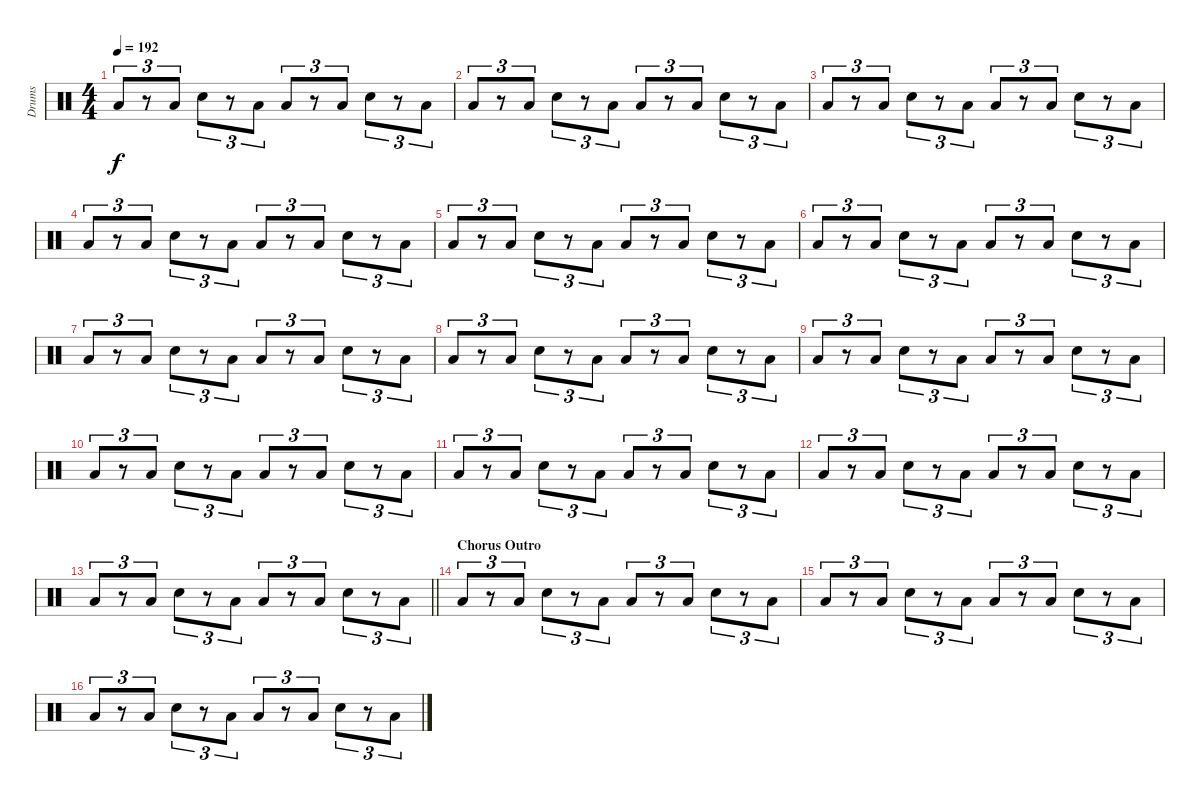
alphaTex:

\track ("Drums" "Drums") {instrument percussion}
\staff {score}
\articulation defaults
\ts (4 4)
\tempo 192
\clef neutral
\ks c "Low Floor Tom (hit)".8{tu (3 2) dy f}
r.8{tu (3 2)} "Low Tom (hit)".8{tu (3 2)} "Snare (hit) 2".8{tu (3 2)} r.8{tu (3 2)} "Low Tom (hit)".8{tu (3 2)} "Low Floor Tom (hit)".8{tu (3 2)} r.8{tu (3 2)} "Low Tom (hit)".8{tu (3 2)} "Snare (hit) 2".8{tu (3 2)} r.8{tu (3 2)} "Low Tom (hit)".8{tu (3 2)} |
"Low Floor Tom (hit)".8{tu (3 2)} r.8{tu (3 2)} "Low Tom (hit)".8{tu (3 2)} "Snare (hit) 2".8{tu (3 2)} r.8{tu (3 2)} "Low Tom (hit)".8{tu (3 2)} "Low Floor Tom (hit)".8{tu (3 2)} r.8{tu (3 2)} "Low Tom (hit)".8{tu (3 2)} "Snare (hit) 2".8{tu (3 2)} r.8{tu (3 2)} "Low Tom (hit)".8{tu (3 2)} |
"Low Floor Tom (hit)".8{tu (3 2)} r.8{tu (3 2)} "Low Tom (hit)".8{tu (3 2)} "Snare (hit) 2".8{tu (3 2)} r.8{tu (3 2)} "Low Tom (hit)".8{tu (3 2)} "Low Floor Tom (hit)".8{tu (3 2)} r.8{tu (3 2)} "Low Tom (hit)".8{tu (3 2)} "Snare (hit) 2".8{tu (3 2)} r.8{tu (3 2)} "Low Tom (hit)".8{tu (3 2)} |
"Low Floor Tom (hit)".8{tu (3 2)} r.8{tu (3 2)} "Low Tom (hit)".8{tu (3 2)} "Snare (hit) 2".8{tu (3 2)} r.8{tu (3 2)} "Low Tom (hit)".8{tu (3 2)} "Low Floor Tom (hit)".8{tu (3 2)} r.8{tu (3 2)} "Low Tom (hit)".8{tu (3 2)} "Snare (hit) 2".8{tu (3 2)} r.8{tu (3 2)} "Low Tom (hit)".8{tu (3 2)} |
"Low Floor Tom (hit)".8{tu (3 2)} r.8{tu (3 2)} "Low Tom (hit)".8{tu (3 2)} "Snare (hit) 2".8{tu (3 2)} r.8{tu (3 2)} "Low Tom (hit)".8{tu (3 2)} "Low Floor Tom (hit)".8{tu (3 2)} r.8{tu (3 2)} "Low Tom (hit)".8{tu (3 2)} "Snare (hit) 2".8{tu (3 2)} r.8{tu (3 2)} "Low Tom (hit)".8{tu (3 2)} |
"Low Floor Tom (hit)".8{tu (3 2)} r.8{tu (3 2)} "Low Tom (hit)".8{tu (3 2)} "Snare (hit) 2".8{tu (3 2)} r.8{tu (3 2)} "Low Tom (hit)".8{tu (3 2)} "Low Floor Tom (hit)".8{tu (3 2)} r.8{tu (3 2)} "Low Tom (hit)".8{tu (3 2)} "Snare (hit) 2".8{tu (3 2)} r.8{tu (3 2)} "Low Tom (hit)".8{tu (3 2)} |
"Low Floor Tom (hit)".8{tu (3 2)} r.8{tu (3 2)} "Low Tom (hit)".8{tu (3 2)} "Snare (hit) 2".8{tu (3 2)} r.8{tu (3 2)} "Low Tom (hit)".8{tu (3 2)} "Low Floor Tom (hit)".8{tu (3 2)} r.8{tu (3 2)} "Low Tom (hit)".8{tu (3 2)} "Snare (hit) 2".8{tu (3 2)} r.8{tu (3 2)} "Low Tom (hit)".8{tu (3 2)} |
"Low Floor Tom (hit)".8{tu (3 2)} r.8{tu (3 2)} "Low Tom (hit)".8{tu (3 2)} "Snare (hit) 2".8{tu (3 2)} r.8{tu (3 2)} "Low Tom (hit)".8{tu (3 2)} "Low Floor Tom (hit)".8{tu (3 2)} r.8{tu (3 2)} "Low Tom (hit)".8{tu (3 2)} "Snare (hit) 2".8{tu (3 2)} r.8{tu (3 2)} "Low Tom (hit)".8{tu (3 2)} |
"Low Floor Tom (hit)".8{tu (3 2)} r.8{tu (3 2)} "Low Tom (hit)".8{tu (3 2)} "Snare (hit) 2".8{tu (3 2)} r.8{tu (3 2)} "Low Tom (hit)".8{tu (3 2)} "Low Floor Tom (hit)".8{tu (3 2)} r.8{tu (3 2)} "Low Tom (hit)".8{tu (3 2)} "Snare (hit) 2".8{tu (3 2)} r.8{tu (3 2)} "Low Tom (hit)".8{tu (3 2)} |
"Low Floor Tom (hit)".8{tu (3 2)} r.8{tu (3 2)} "Low Tom (hit)".8{tu (3 2)} "Snare (hit) 2".8{tu (3 2)} r.8{tu (3 2)} "Low Tom (hit)".8{tu (3 2)} "Low Floor Tom (hit)".8{tu (3 2)} r.8{tu (3 2)} "Low Tom (hit)".8{tu (3 2)} "Snare (hit) 2".8{tu (3 2)} r.8{tu (3 2)} "Low Tom (hit)".8{tu (3 2)} |
"Low Floor Tom (hit)".8{tu (3 2)} r.8{tu (3 2)} "Low Tom (hit)".8{tu (3 2)} "Snare (hit) 2".8{tu (3 2)} r.8{tu (3 2)} "Low Tom (hit)".8{tu (3 2)} "Low Floor Tom (hit)".8{tu (3 2)} r.8{tu (3 2)} "Low Tom (hit)".8{tu (3 2)} "Snare (hit) 2".8{tu (3 2)} r.8{tu (3 2)} "Low Tom (hit)".8{tu (3 2)} |
"Low Floor Tom (hit)".8{tu (3 2)} r.8{tu (3 2)} "Low Tom (hit)".8{tu (3 2)} "Snare (hit) 2".8{tu (3 2)} r.8{tu (3 2)} "Low Tom (hit)".8{tu (3 2)} "Low Floor Tom (hit)".8{tu (3 2)} r.8{tu (3 2)} "Low Tom (hit)".8{tu (3 2)} "Snare (hit) 2".8{tu (3 2)} r.8{tu (3 2)} "Low Tom (hit)".8{tu (3 2)} |
\barLineRight lightlight "Low Floor Tom (hit)".8{tu (3 2)}
r.8{tu (3 2)} "Low Tom (hit)".8{tu (3 2)} "Snare (hit) 2".8{tu (3 2)} r.8{tu (3 2)} "Low Tom (hit)".8{tu (3 2)} "Low Floor Tom (hit)".8{tu (3 2)} r.8{tu (3 2)} "Low Tom (hit)".8{tu (3 2)} "Snare (hit) 2".8{tu (3 2)} r.8{tu (3 2)} "Low Tom (hit)".8{tu (3 2)} |
\section ("" "Chorus Outro")
"Low Floor Tom (hit)".8{tu (3 2)} r.8{tu (3 2)} "Low Tom (hit)".8{tu (3 2)} "Snare (hit) 2".8{tu (3 2)} r.8{tu (3 2)} "Low Tom (hit)".8{tu (3 2)} "Low Floor Tom (hit)".8{tu (3 2)} r.8{tu (3 2)} "Low Tom (hit)".8{tu (3 2)} "Snare (hit) 2".8{tu (3 2)} r.8{tu (3 2)} "Low Tom (hit)".8{tu (3 2)} |
"Low Floor Tom (hit)".8{tu (3 2)} r.8{tu (3 2)} "Low Tom (hit)".8{tu (3 2)} "Snare (hit) 2".8{tu (3 2)} r.8{tu (3 2)} "Low Tom (hit)".8{tu (3 2)} "Low Floor Tom (hit)".8{tu (3 2)} r.8{tu (3 2)} "Low Tom (hit)".8{tu (3 2)} "Snare (hit) 2".8{tu (3 2)} r.8{tu (3 2)} "Low Tom (hit)".8{tu (3 2)} |
"Low Floor Tom (hit)".8{tu (3 2)} r.8{tu (3 2)} "Low Tom (hit)".8{tu (3 2)} "Snare (hit) 2".8{tu (3 2)} r.8{tu (3 2)} "Low Tom (hit)".8{tu (3 2)} "Low Floor Tom (hit)".8{tu (3 2)} r.8{tu (3 2)} "Low Tom (hit)".8{tu (3 2)} "Snare (hit) 2".8{tu (3 2)} r.8{tu (3 2)} "Low Tom (hit)".8{tu (3 2)}
